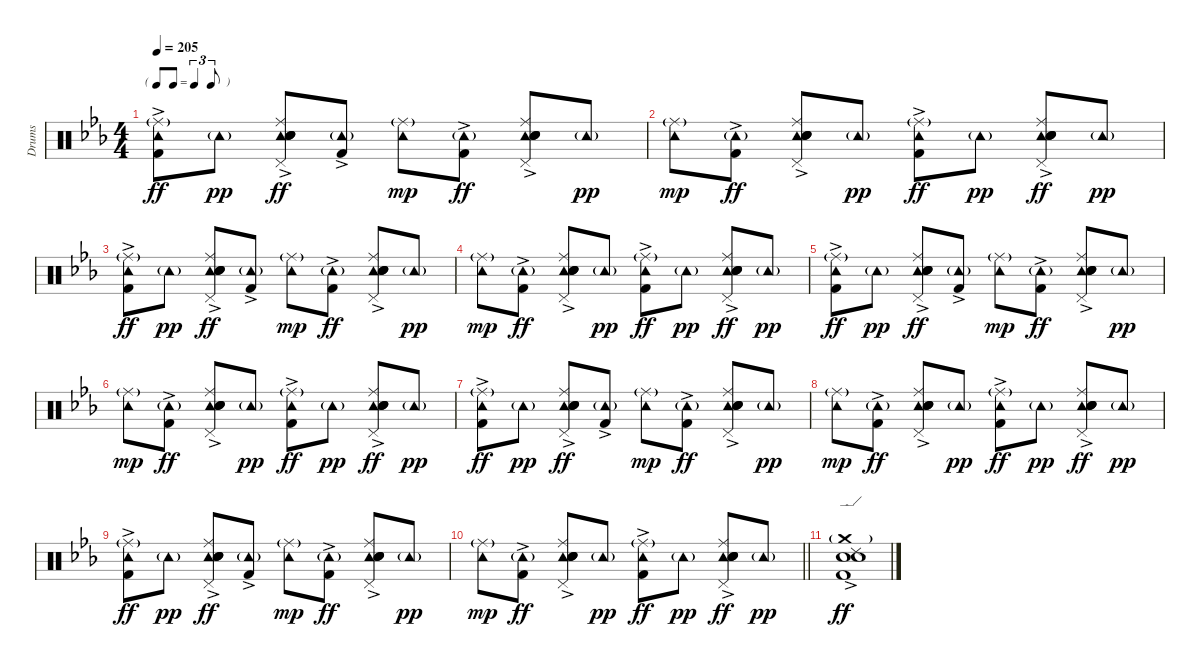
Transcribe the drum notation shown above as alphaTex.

\track ("Drums" "Drums") {instrument percussion}
\staff {score}
\articulation defaults
\ts (4 4)
\tf triplet8th
\tempo 205
\clef neutral
\ks eb
("Ride (middle)"{g} "Tambourine (hit)" "Kick (hit) 2"{ac}).8{dy ff} "Tambourine (hit)"{g}.8{dy pp} ("Ride (middle)" "Tambourine (hit)"{ac} "Hand Clap (hit)" "Electric Snare (hit)"{ac} "Snare (hit) 2" "Pedal Hi-Hat (hit)").8{dy ff} ("Tambourine (hit)"{g} "Kick (hit) 2"{ac}).8 ("Ride (middle)"{g} "Tambourine (hit)").8{dy mp} ("Tambourine (hit)"{g} "Kick (hit) 2"{ac}).8{dy ff} ("Ride (middle)" "Tambourine (hit)"{ac} "Hand Clap (hit)" "Electric Snare (hit)"{ac} "Snare (hit) 2" "Pedal Hi-Hat (hit)").8 "Tambourine (hit)"{g}.8{dy pp} |
("Ride (middle)"{g} "Tambourine (hit)").8{dy mp} ("Tambourine (hit)"{g} "Kick (hit) 2"{ac}).8{dy ff} ("Ride (middle)" "Tambourine (hit)"{ac} "Hand Clap (hit)" "Electric Snare (hit)"{ac} "Snare (hit) 2" "Pedal Hi-Hat (hit)").8 "Tambourine (hit)"{g}.8{dy pp} ("Ride (middle)"{g} "Tambourine (hit)" "Kick (hit) 2"{ac}).8{dy ff} "Tambourine (hit)"{g}.8{dy pp} ("Ride (middle)" "Tambourine (hit)"{ac} "Hand Clap (hit)" "Electric Snare (hit)"{ac} "Snare (hit) 2" "Pedal Hi-Hat (hit)").8{dy ff} "Tambourine (hit)"{g}.8{dy pp} |
("Ride (middle)"{g} "Tambourine (hit)" "Kick (hit) 2"{ac}).8{dy ff} "Tambourine (hit)"{g}.8{dy pp} ("Ride (middle)" "Tambourine (hit)"{ac} "Hand Clap (hit)" "Electric Snare (hit)"{ac} "Snare (hit) 2" "Pedal Hi-Hat (hit)").8{dy ff} ("Tambourine (hit)"{g} "Kick (hit) 2"{ac}).8 ("Ride (middle)"{g} "Tambourine (hit)").8{dy mp} ("Tambourine (hit)"{g} "Kick (hit) 2"{ac}).8{dy ff} ("Ride (middle)" "Tambourine (hit)"{ac} "Hand Clap (hit)" "Electric Snare (hit)"{ac} "Snare (hit) 2" "Pedal Hi-Hat (hit)").8 "Tambourine (hit)"{g}.8{dy pp} |
("Ride (middle)"{g} "Tambourine (hit)").8{dy mp} ("Tambourine (hit)"{g} "Kick (hit) 2"{ac}).8{dy ff} ("Ride (middle)" "Tambourine (hit)"{ac} "Hand Clap (hit)" "Electric Snare (hit)"{ac} "Snare (hit) 2" "Pedal Hi-Hat (hit)").8 "Tambourine (hit)"{g}.8{dy pp} ("Ride (middle)"{g} "Tambourine (hit)" "Kick (hit) 2"{ac}).8{dy ff} "Tambourine (hit)"{g}.8{dy pp} ("Ride (middle)" "Tambourine (hit)"{ac} "Hand Clap (hit)" "Electric Snare (hit)"{ac} "Snare (hit) 2" "Pedal Hi-Hat (hit)").8{dy ff} "Tambourine (hit)"{g}.8{dy pp} |
("Ride (middle)"{g} "Tambourine (hit)" "Kick (hit) 2"{ac}).8{dy ff} "Tambourine (hit)"{g}.8{dy pp} ("Ride (middle)" "Tambourine (hit)"{ac} "Hand Clap (hit)" "Electric Snare (hit)"{ac} "Snare (hit) 2" "Pedal Hi-Hat (hit)").8{dy ff} ("Tambourine (hit)"{g} "Kick (hit) 2"{ac}).8 ("Ride (middle)"{g} "Tambourine (hit)").8{dy mp} ("Tambourine (hit)"{g} "Kick (hit) 2"{ac}).8{dy ff} ("Ride (middle)" "Tambourine (hit)"{ac} "Hand Clap (hit)" "Electric Snare (hit)"{ac} "Snare (hit) 2" "Pedal Hi-Hat (hit)").8 "Tambourine (hit)"{g}.8{dy pp} |
("Ride (middle)"{g} "Tambourine (hit)").8{dy mp} ("Tambourine (hit)"{g} "Kick (hit) 2"{ac}).8{dy ff} ("Ride (middle)" "Tambourine (hit)"{ac} "Hand Clap (hit)" "Electric Snare (hit)"{ac} "Snare (hit) 2" "Pedal Hi-Hat (hit)").8 "Tambourine (hit)"{g}.8{dy pp} ("Ride (middle)"{g} "Tambourine (hit)" "Kick (hit) 2"{ac}).8{dy ff} "Tambourine (hit)"{g}.8{dy pp} ("Ride (middle)" "Tambourine (hit)"{ac} "Hand Clap (hit)" "Electric Snare (hit)"{ac} "Snare (hit) 2" "Pedal Hi-Hat (hit)").8{dy ff} "Tambourine (hit)"{g}.8{dy pp} |
("Ride (middle)"{g} "Tambourine (hit)" "Kick (hit) 2"{ac}).8{dy ff} "Tambourine (hit)"{g}.8{dy pp} ("Ride (middle)" "Tambourine (hit)"{ac} "Hand Clap (hit)" "Electric Snare (hit)"{ac} "Snare (hit) 2" "Pedal Hi-Hat (hit)").8{dy ff} ("Tambourine (hit)"{g} "Kick (hit) 2"{ac}).8 ("Ride (middle)"{g} "Tambourine (hit)").8{dy mp} ("Tambourine (hit)"{g} "Kick (hit) 2"{ac}).8{dy ff} ("Ride (middle)" "Tambourine (hit)"{ac} "Hand Clap (hit)" "Electric Snare (hit)"{ac} "Snare (hit) 2" "Pedal Hi-Hat (hit)").8 "Tambourine (hit)"{g}.8{dy pp} |
("Ride (middle)"{g} "Tambourine (hit)").8{dy mp} ("Tambourine (hit)"{g} "Kick (hit) 2"{ac}).8{dy ff} ("Ride (middle)" "Tambourine (hit)"{ac} "Hand Clap (hit)" "Electric Snare (hit)"{ac} "Snare (hit) 2" "Pedal Hi-Hat (hit)").8 "Tambourine (hit)"{g}.8{dy pp} ("Ride (middle)"{g} "Tambourine (hit)" "Kick (hit) 2"{ac}).8{dy ff} "Tambourine (hit)"{g}.8{dy pp} ("Ride (middle)" "Tambourine (hit)"{ac} "Hand Clap (hit)" "Electric Snare (hit)"{ac} "Snare (hit) 2" "Pedal Hi-Hat (hit)").8{dy ff} "Tambourine (hit)"{g}.8{dy pp} |
("Ride (middle)"{g} "Tambourine (hit)" "Kick (hit) 2"{ac}).8{dy ff} "Tambourine (hit)"{g}.8{dy pp} ("Ride (middle)" "Tambourine (hit)"{ac} "Hand Clap (hit)" "Electric Snare (hit)"{ac} "Snare (hit) 2" "Pedal Hi-Hat (hit)").8{dy ff} ("Tambourine (hit)"{g} "Kick (hit) 2"{ac}).8 ("Ride (middle)"{g} "Tambourine (hit)").8{dy mp} ("Tambourine (hit)"{g} "Kick (hit) 2"{ac}).8{dy ff} ("Ride (middle)" "Tambourine (hit)"{ac} "Hand Clap (hit)" "Electric Snare (hit)"{ac} "Snare (hit) 2" "Pedal Hi-Hat (hit)").8 "Tambourine (hit)"{g}.8{dy pp} |
\barLineRight lightlight
("Ride (middle)"{g} "Tambourine (hit)").8{dy mp} ("Tambourine (hit)"{g} "Kick (hit) 2"{ac}).8{dy ff} ("Ride (middle)" "Tambourine (hit)"{ac} "Hand Clap (hit)" "Electric Snare (hit)"{ac} "Snare (hit) 2" "Pedal Hi-Hat (hit)").8 "Tambourine (hit)"{g}.8{dy pp} ("Ride (middle)"{g} "Tambourine (hit)" "Kick (hit) 2"{ac}).8{dy ff} "Tambourine (hit)"{g}.8{dy pp} ("Ride (middle)" "Tambourine (hit)"{ac} "Hand Clap (hit)" "Electric Snare (hit)"{ac} "Snare (hit) 2" "Pedal Hi-Hat (hit)").8{dy ff} "Tambourine (hit)"{g}.8{dy pp} |
("Crash medium (hit)"{g} "Ride (edge) 2" "Electric Snare (hit)" "Snare (hit) 2" "Kick (hit) 2"{ac}).1{dy ff}
